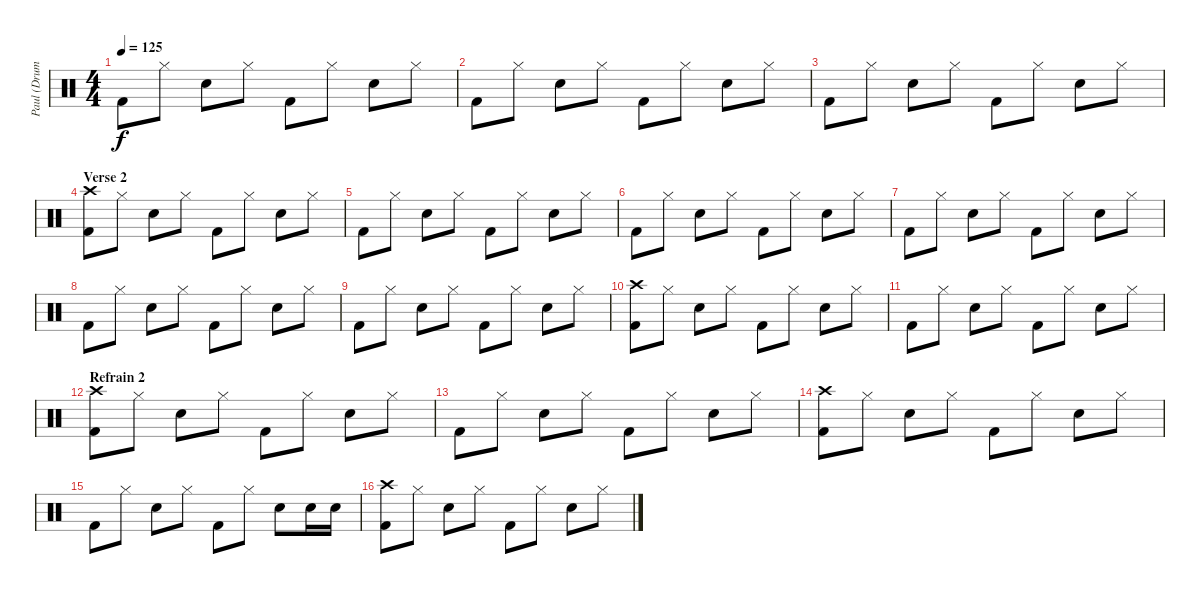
\track ("Paul (Drums)" "Paul (Drum") {instrument percussion}
\staff {score}
\articulation defaults
\ts (4 4)
\tempo 125
\clef neutral
\ks c "Kick (hit) 2".8{dy f} "Hi-Hat (closed)".8 "Snare (hit) 2".8 "Hi-Hat (closed)".8 "Kick (hit) 2".8 "Hi-Hat (closed)".8 "Snare (hit) 2".8 "Hi-Hat (closed)".8
|
"Kick (hit) 2".8 "Hi-Hat (closed)".8 "Snare (hit) 2".8 "Hi-Hat (closed)".8 "Kick (hit) 2".8 "Hi-Hat (closed)".8 "Snare (hit) 2".8 "Hi-Hat (closed)".8 |
"Kick (hit) 2".8 "Hi-Hat (closed)".8 "Snare (hit) 2".8 "Hi-Hat (closed)".8 "Kick (hit) 2".8 "Hi-Hat (closed)".8 "Snare (hit) 2".8 "Hi-Hat (closed)".8 |
\section ("" "Verse 2")
("Crash high (hit)" "Kick (hit) 2").8 "Hi-Hat (closed)".8 "Snare (hit) 2".8 "Hi-Hat (closed)".8 "Kick (hit) 2".8 "Hi-Hat (closed)".8 "Snare (hit) 2".8 "Hi-Hat (closed)".8 |
"Kick (hit) 2".8 "Hi-Hat (closed)".8 "Snare (hit) 2".8 "Hi-Hat (closed)".8 "Kick (hit) 2".8 "Hi-Hat (closed)".8 "Snare (hit) 2".8 "Hi-Hat (closed)".8 |
"Kick (hit) 2".8 "Hi-Hat (closed)".8 "Snare (hit) 2".8 "Hi-Hat (closed)".8 "Kick (hit) 2".8 "Hi-Hat (closed)".8 "Snare (hit) 2".8 "Hi-Hat (closed)".8 |
"Kick (hit) 2".8 "Hi-Hat (closed)".8 "Snare (hit) 2".8 "Hi-Hat (closed)".8 "Kick (hit) 2".8 "Hi-Hat (closed)".8 "Snare (hit) 2".8 "Hi-Hat (closed)".8 |
"Kick (hit) 2".8 "Hi-Hat (closed)".8 "Snare (hit) 2".8 "Hi-Hat (closed)".8 "Kick (hit) 2".8 "Hi-Hat (closed)".8 "Snare (hit) 2".8 "Hi-Hat (closed)".8 |
"Kick (hit) 2".8 "Hi-Hat (closed)".8 "Snare (hit) 2".8 "Hi-Hat (closed)".8 "Kick (hit) 2".8 "Hi-Hat (closed)".8 "Snare (hit) 2".8 "Hi-Hat (closed)".8 |
("Crash high (hit)" "Kick (hit) 2").8 "Hi-Hat (closed)".8 "Snare (hit) 2".8 "Hi-Hat (closed)".8 "Kick (hit) 2".8 "Hi-Hat (closed)".8 "Snare (hit) 2".8 "Hi-Hat (closed)".8 |
"Kick (hit) 2".8 "Hi-Hat (closed)".8 "Snare (hit) 2".8 "Hi-Hat (closed)".8 "Kick (hit) 2".8 "Hi-Hat (closed)".8 "Snare (hit) 2".8 "Hi-Hat (closed)".8 |
\section ("" "Refrain 2")
("Crash high (hit)" "Kick (hit) 2").8 "Hi-Hat (closed)".8 "Snare (hit) 2".8 "Hi-Hat (closed)".8 "Kick (hit) 2".8 "Hi-Hat (closed)".8 "Snare (hit) 2".8 "Hi-Hat (closed)".8 |
"Kick (hit) 2".8 "Hi-Hat (closed)".8 "Snare (hit) 2".8 "Hi-Hat (closed)".8 "Kick (hit) 2".8 "Hi-Hat (closed)".8 "Snare (hit) 2".8 "Hi-Hat (closed)".8 |
("Crash high (hit)" "Kick (hit) 2").8 "Hi-Hat (closed)".8 "Snare (hit) 2".8 "Hi-Hat (closed)".8 "Kick (hit) 2".8 "Hi-Hat (closed)".8 "Snare (hit) 2".8 "Hi-Hat (closed)".8 |
"Kick (hit) 2".8 "Hi-Hat (closed)".8 "Snare (hit) 2".8 "Hi-Hat (closed)".8 "Kick (hit) 2".8 "Hi-Hat (closed)".8 "Snare (hit) 2".8 "Snare (hit) 2".16 "Snare (hit) 2".16 |
("Crash high (hit)" "Kick (hit) 2").8 "Hi-Hat (closed)".8 "Snare (hit) 2".8 "Hi-Hat (closed)".8 "Kick (hit) 2".8 "Hi-Hat (closed)".8 "Snare (hit) 2".8 "Hi-Hat (closed)".8
